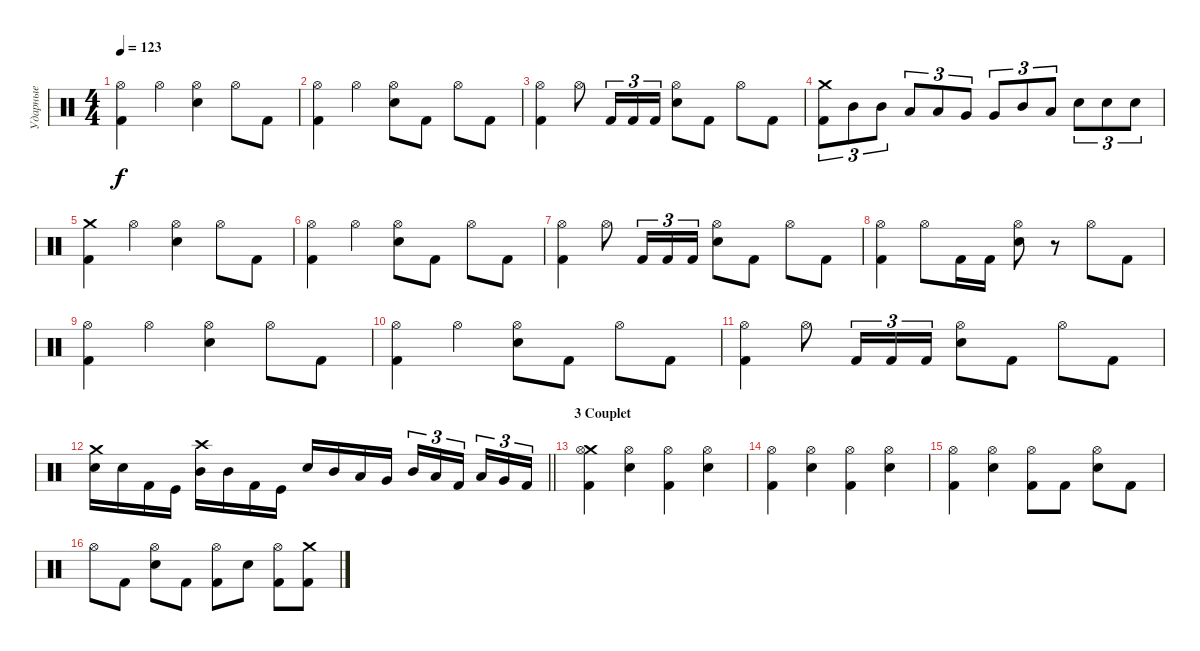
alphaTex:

\track ("Ударные" "Ударные") {instrument percussion}
\staff {score}
\articulation defaults
\ts (4 4)
\tempo 123
\clef neutral
\ks c
("Kick (hit) 2" "Hi-Hat (open)").4{dy f} "Hi-Hat (open)".4 ("Snare (hit) 2" "Hi-Hat (open)").4 "Hi-Hat (open)".8 "Kick (hit) 2".8 |
("Kick (hit) 2" "Hi-Hat (open)").4 "Hi-Hat (open)".4 ("Snare (hit) 2" "Hi-Hat (open)").8 "Kick (hit) 2".8 "Hi-Hat (open)".8 "Kick (hit) 2".8 |
("Kick (hit) 2" "Hi-Hat (open)").4 "Hi-Hat (open)".8 "Kick (hit) 2".16{tu (3 2)} "Kick (hit) 2".16{tu (3 2)} "Kick (hit) 2".16{tu (3 2)} ("Snare (hit) 2" "Hi-Hat (open)").8 "Kick (hit) 2".8 "Hi-Hat (open)".8 "Kick (hit) 2".8 |
("Crash medium (hit)" "Kick (hit) 2").8{tu (3 2)} "Mid Tom (hit)".8{tu (3 2)} "Mid Tom (hit)".8{tu (3 2)} "Low Tom (hit)".8{tu (3 2)} "Low Tom (hit)".8{tu (3 2)} "Very Low Tom (hit)".8{tu (3 2)} "Very Low Tom (hit)".8{tu (3 2)} "Mid Tom (hit)".8{tu (3 2)} "Low Tom (hit)".8{tu (3 2)} "Snare (hit) 2".8{tu (3 2)} "Snare (hit) 2".8{tu (3 2)} "Snare (hit) 2".8{tu (3 2)} |
("Crash medium (hit)" "Kick (hit) 2").4 "Hi-Hat (open)".4 ("Snare (hit) 2" "Hi-Hat (open)").4 "Hi-Hat (open)".8 "Kick (hit) 2".8 |
("Kick (hit) 2" "Hi-Hat (open)").4 "Hi-Hat (open)".4 ("Snare (hit) 2" "Hi-Hat (open)").8 "Kick (hit) 2".8 "Hi-Hat (open)".8 "Kick (hit) 2".8 |
("Kick (hit) 2" "Hi-Hat (open)").4 "Hi-Hat (open)".8 "Kick (hit) 2".16{tu (3 2)} "Kick (hit) 2".16{tu (3 2)} "Kick (hit) 2".16{tu (3 2)} ("Snare (hit) 2" "Hi-Hat (open)").8 "Kick (hit) 2".8 "Hi-Hat (open)".8 "Kick (hit) 2".8 |
("Kick (hit) 2" "Hi-Hat (open)").4 "Hi-Hat (open)".8 "Kick (hit) 2".16 "Kick (hit) 2".16 ("Snare (hit) 2" "Hi-Hat (open)").8 r.8 "Hi-Hat (open)".8 "Kick (hit) 2".8 |
("Kick (hit) 2" "Hi-Hat (open)").4 "Hi-Hat (open)".4 ("Snare (hit) 2" "Hi-Hat (open)").4 "Hi-Hat (open)".8 "Kick (hit) 2".8 |
("Kick (hit) 2" "Hi-Hat (open)").4 "Hi-Hat (open)".4 ("Snare (hit) 2" "Hi-Hat (open)").8 "Kick (hit) 2".8 "Hi-Hat (open)".8 "Kick (hit) 2".8 |
("Kick (hit) 2" "Hi-Hat (open)").4 "Hi-Hat (open)".8 "Kick (hit) 2".16{tu (3 2)} "Kick (hit) 2".16{tu (3 2)} "Kick (hit) 2".16{tu (3 2)} ("Snare (hit) 2" "Hi-Hat (open)").8 "Kick (hit) 2".8 "Hi-Hat (open)".8 "Kick (hit) 2".8 |
\barLineRight lightlight
("Crash medium (hit)" "Snare (hit) 2").16 "Snare (hit) 2".16 "Kick (hit) 2".16 "Kick (hit)".16 ("Crash high (hit)" "Mid Tom (hit)").16 "Mid Tom (hit)".16 "Kick (hit) 2".16 "Kick (hit)".16 "Snare (hit) 2".16 "Mid Tom (hit)".16 "Low Tom (hit)".16 "Very Low Tom (hit)".16 "Mid Tom (hit)".16{tu (3 2)} "Low Tom (hit)".16{tu (3 2)} "Kick (hit) 2".16{tu (3 2) beam splitsecondary} "Low Tom (hit)".16{tu (3 2)} "Very Low Tom (hit)".16{tu (3 2)} "Kick (hit) 2".16{tu (3 2)} |
\section ("" "3 Couplet")
("Crash medium (hit)" "Kick (hit) 2" "Hi-Hat (open)").4 ("Snare (hit) 2" "Hi-Hat (open)").4 ("Kick (hit) 2" "Hi-Hat (open)").4 ("Snare (hit) 2" "Hi-Hat (open)").4 |
("Kick (hit) 2" "Hi-Hat (open)").4 ("Snare (hit) 2" "Hi-Hat (open)").4 ("Kick (hit) 2" "Hi-Hat (open)").4 ("Snare (hit) 2" "Hi-Hat (open)").4 |
("Kick (hit) 2" "Hi-Hat (open)").4 ("Snare (hit) 2" "Hi-Hat (open)").4 ("Kick (hit) 2" "Hi-Hat (open)").8 "Kick (hit) 2".8 ("Snare (hit) 2" "Hi-Hat (open)").8 "Kick (hit) 2".8 |
"Hi-Hat (open)".8 "Kick (hit) 2".8 ("Snare (hit) 2" "Hi-Hat (open)").8 "Kick (hit) 2".8 ("Kick (hit) 2" "Hi-Hat (open)").8 "Snare (hit) 2".8 ("Kick (hit) 2" "Hi-Hat (open)").8 ("Crash medium (hit)" "Kick (hit) 2").8
